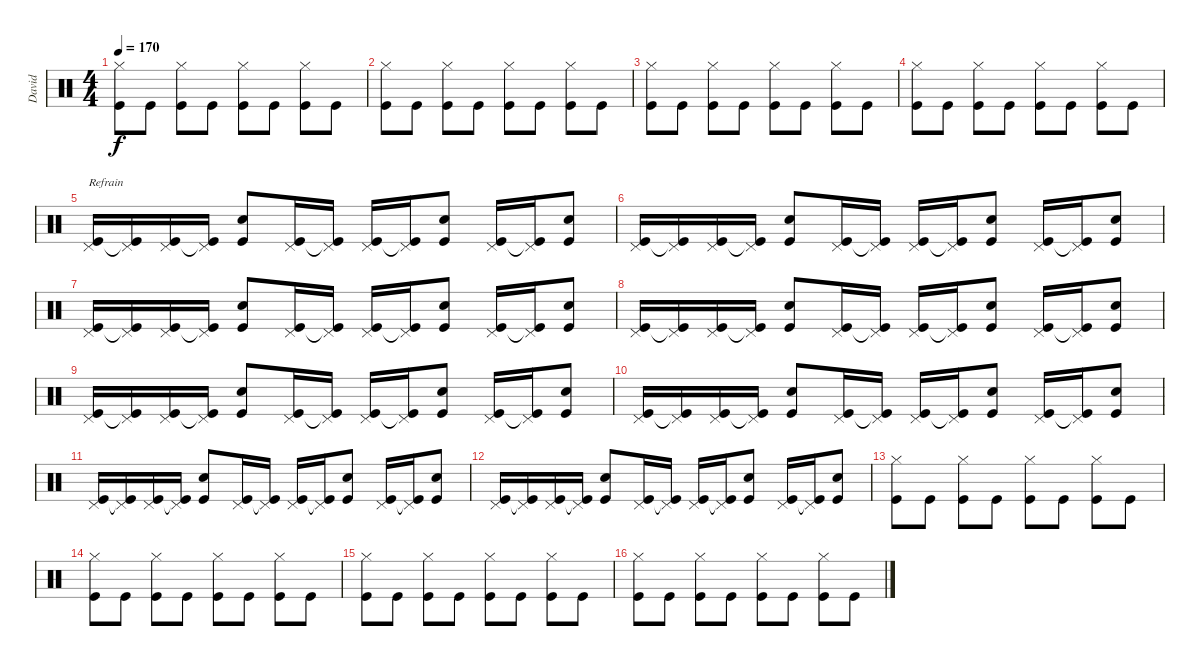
\track ("David" "David") {instrument percussion}
\staff {score}
\articulation defaults
\ts (4 4)
\tempo 170
\clef neutral
\ks c
("Hi-Hat (closed)" "Kick (hit)").8{dy f} "Kick (hit)".8 ("Hi-Hat (closed)" "Kick (hit)").8 "Kick (hit)".8 ("Hi-Hat (closed)" "Kick (hit)").8 "Kick (hit)".8 ("Hi-Hat (closed)" "Kick (hit)").8 "Kick (hit)".8 |
("Hi-Hat (closed)" "Kick (hit)").8 "Kick (hit)".8 ("Hi-Hat (closed)" "Kick (hit)").8 "Kick (hit)".8 ("Hi-Hat (closed)" "Kick (hit)").8 "Kick (hit)".8 ("Hi-Hat (closed)" "Kick (hit)").8 "Kick (hit)".8 |
("Hi-Hat (closed)" "Kick (hit)").8 "Kick (hit)".8 ("Hi-Hat (closed)" "Kick (hit)").8 "Kick (hit)".8 ("Hi-Hat (closed)" "Kick (hit)").8 "Kick (hit)".8 ("Hi-Hat (closed)" "Kick (hit)").8 "Kick (hit)".8 |
("Hi-Hat (closed)" "Kick (hit)").8 "Kick (hit)".8 ("Hi-Hat (closed)" "Kick (hit)").8 "Kick (hit)".8 ("Hi-Hat (closed)" "Kick (hit)").8 "Kick (hit)".8 ("Hi-Hat (closed)" "Kick (hit)").8 "Kick (hit)".8 |
("Pedal Hi-Hat (hit)" "Kick (hit)").16{txt "Refrain"} ("Pedal Hi-Hat (hit)" "Kick (hit)"{t}).16 ("Pedal Hi-Hat (hit)" "Kick (hit)").16 ("Pedal Hi-Hat (hit)" "Kick (hit)"{t}).16 ("Snare (hit) 2" "Kick (hit)").8 ("Pedal Hi-Hat (hit)" "Kick (hit)").16 ("Pedal Hi-Hat (hit)" "Kick (hit)"{t}).16 ("Pedal Hi-Hat (hit)" "Kick (hit)").16 ("Pedal Hi-Hat (hit)" "Kick (hit)"{t}).16 ("Snare (hit) 2" "Kick (hit)").8 ("Pedal Hi-Hat (hit)" "Kick (hit)").16 ("Pedal Hi-Hat (hit)" "Kick (hit)"{t}).16 ("Snare (hit) 2" "Kick (hit)").8 |
("Pedal Hi-Hat (hit)" "Kick (hit)").16 ("Pedal Hi-Hat (hit)" "Kick (hit)"{t}).16 ("Pedal Hi-Hat (hit)" "Kick (hit)").16 ("Pedal Hi-Hat (hit)" "Kick (hit)"{t}).16 ("Snare (hit) 2" "Kick (hit)").8 ("Pedal Hi-Hat (hit)" "Kick (hit)").16 ("Pedal Hi-Hat (hit)" "Kick (hit)"{t}).16 ("Pedal Hi-Hat (hit)" "Kick (hit)").16 ("Pedal Hi-Hat (hit)" "Kick (hit)"{t}).16 ("Snare (hit) 2" "Kick (hit)").8 ("Pedal Hi-Hat (hit)" "Kick (hit)").16 ("Pedal Hi-Hat (hit)" "Kick (hit)"{t}).16 ("Snare (hit) 2" "Kick (hit)").8 |
("Pedal Hi-Hat (hit)" "Kick (hit)").16 ("Pedal Hi-Hat (hit)" "Kick (hit)"{t}).16 ("Pedal Hi-Hat (hit)" "Kick (hit)").16 ("Pedal Hi-Hat (hit)" "Kick (hit)"{t}).16 ("Snare (hit) 2" "Kick (hit)").8 ("Pedal Hi-Hat (hit)" "Kick (hit)").16 ("Pedal Hi-Hat (hit)" "Kick (hit)"{t}).16 ("Pedal Hi-Hat (hit)" "Kick (hit)").16 ("Pedal Hi-Hat (hit)" "Kick (hit)"{t}).16 ("Snare (hit) 2" "Kick (hit)").8 ("Pedal Hi-Hat (hit)" "Kick (hit)").16 ("Pedal Hi-Hat (hit)" "Kick (hit)"{t}).16 ("Snare (hit) 2" "Kick (hit)").8 |
("Pedal Hi-Hat (hit)" "Kick (hit)").16 ("Pedal Hi-Hat (hit)" "Kick (hit)"{t}).16 ("Pedal Hi-Hat (hit)" "Kick (hit)").16 ("Pedal Hi-Hat (hit)" "Kick (hit)"{t}).16 ("Snare (hit) 2" "Kick (hit)").8 ("Pedal Hi-Hat (hit)" "Kick (hit)").16 ("Pedal Hi-Hat (hit)" "Kick (hit)"{t}).16 ("Pedal Hi-Hat (hit)" "Kick (hit)").16 ("Pedal Hi-Hat (hit)" "Kick (hit)"{t}).16 ("Snare (hit) 2" "Kick (hit)").8 ("Pedal Hi-Hat (hit)" "Kick (hit)").16 ("Pedal Hi-Hat (hit)" "Kick (hit)"{t}).16 ("Snare (hit) 2" "Kick (hit)").8 |
("Pedal Hi-Hat (hit)" "Kick (hit)").16 ("Pedal Hi-Hat (hit)" "Kick (hit)"{t}).16 ("Pedal Hi-Hat (hit)" "Kick (hit)").16 ("Pedal Hi-Hat (hit)" "Kick (hit)"{t}).16 ("Snare (hit) 2" "Kick (hit)").8 ("Pedal Hi-Hat (hit)" "Kick (hit)").16 ("Pedal Hi-Hat (hit)" "Kick (hit)"{t}).16 ("Pedal Hi-Hat (hit)" "Kick (hit)").16 ("Pedal Hi-Hat (hit)" "Kick (hit)"{t}).16 ("Snare (hit) 2" "Kick (hit)").8 ("Pedal Hi-Hat (hit)" "Kick (hit)").16 ("Pedal Hi-Hat (hit)" "Kick (hit)"{t}).16 ("Snare (hit) 2" "Kick (hit)").8 |
("Pedal Hi-Hat (hit)" "Kick (hit)").16 ("Pedal Hi-Hat (hit)" "Kick (hit)"{t}).16 ("Pedal Hi-Hat (hit)" "Kick (hit)").16 ("Pedal Hi-Hat (hit)" "Kick (hit)"{t}).16 ("Snare (hit) 2" "Kick (hit)").8 ("Pedal Hi-Hat (hit)" "Kick (hit)").16 ("Pedal Hi-Hat (hit)" "Kick (hit)"{t}).16 ("Pedal Hi-Hat (hit)" "Kick (hit)").16 ("Pedal Hi-Hat (hit)" "Kick (hit)"{t}).16 ("Snare (hit) 2" "Kick (hit)").8 ("Pedal Hi-Hat (hit)" "Kick (hit)").16 ("Pedal Hi-Hat (hit)" "Kick (hit)"{t}).16 ("Snare (hit) 2" "Kick (hit)").8 |
("Pedal Hi-Hat (hit)" "Kick (hit)").16 ("Pedal Hi-Hat (hit)" "Kick (hit)"{t}).16 ("Pedal Hi-Hat (hit)" "Kick (hit)").16 ("Pedal Hi-Hat (hit)" "Kick (hit)"{t}).16 ("Snare (hit) 2" "Kick (hit)").8 ("Pedal Hi-Hat (hit)" "Kick (hit)").16 ("Pedal Hi-Hat (hit)" "Kick (hit)"{t}).16 ("Pedal Hi-Hat (hit)" "Kick (hit)").16 ("Pedal Hi-Hat (hit)" "Kick (hit)"{t}).16 ("Snare (hit) 2" "Kick (hit)").8 ("Pedal Hi-Hat (hit)" "Kick (hit)").16 ("Pedal Hi-Hat (hit)" "Kick (hit)"{t}).16 ("Snare (hit) 2" "Kick (hit)").8 |
("Pedal Hi-Hat (hit)" "Kick (hit)").16 ("Pedal Hi-Hat (hit)" "Kick (hit)"{t}).16 ("Pedal Hi-Hat (hit)" "Kick (hit)").16 ("Pedal Hi-Hat (hit)" "Kick (hit)"{t}).16 ("Snare (hit) 2" "Kick (hit)").8 ("Pedal Hi-Hat (hit)" "Kick (hit)").16 ("Pedal Hi-Hat (hit)" "Kick (hit)"{t}).16 ("Pedal Hi-Hat (hit)" "Kick (hit)").16 ("Pedal Hi-Hat (hit)" "Kick (hit)"{t}).16 ("Snare (hit) 2" "Kick (hit)").8 ("Pedal Hi-Hat (hit)" "Kick (hit)").16 ("Pedal Hi-Hat (hit)" "Kick (hit)"{t}).16 ("Snare (hit) 2" "Kick (hit)").8 |
("Hi-Hat (closed)" "Kick (hit)").8 "Kick (hit)".8 ("Hi-Hat (closed)" "Kick (hit)").8 "Kick (hit)".8 ("Hi-Hat (closed)" "Kick (hit)").8 "Kick (hit)".8 ("Hi-Hat (closed)" "Kick (hit)").8 "Kick (hit)".8 |
("Hi-Hat (closed)" "Kick (hit)").8 "Kick (hit)".8 ("Hi-Hat (closed)" "Kick (hit)").8 "Kick (hit)".8 ("Hi-Hat (closed)" "Kick (hit)").8 "Kick (hit)".8 ("Hi-Hat (closed)" "Kick (hit)").8 "Kick (hit)".8 |
("Hi-Hat (closed)" "Kick (hit)").8 "Kick (hit)".8 ("Hi-Hat (closed)" "Kick (hit)").8 "Kick (hit)".8 ("Hi-Hat (closed)" "Kick (hit)").8 "Kick (hit)".8 ("Hi-Hat (closed)" "Kick (hit)").8 "Kick (hit)".8 |
("Hi-Hat (closed)" "Kick (hit)").8 "Kick (hit)".8 ("Hi-Hat (closed)" "Kick (hit)").8 "Kick (hit)".8 ("Hi-Hat (closed)" "Kick (hit)").8 "Kick (hit)".8 ("Hi-Hat (closed)" "Kick (hit)").8 "Kick (hit)".8
